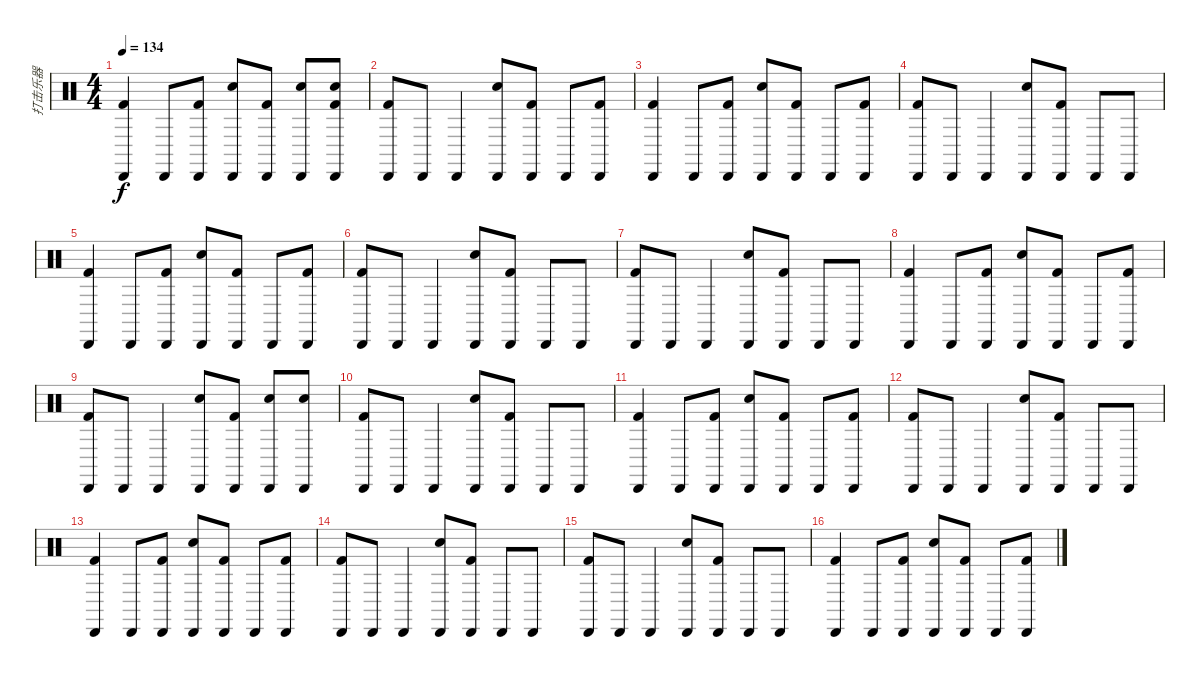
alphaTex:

\track ("打击乐器" "打击乐器") {instrument percussion}
\staff {score}
\articulation defaults
\ts (4 4)
\tempo 134
\clef neutral
\ks c
("Cabasa (hit)" "Kick (hit) 2").4{dy f} "Cabasa (hit)".8 ("Cabasa (hit)" "Kick (hit) 2").8 ("Snare (hit) 2" "Cabasa (hit)").8 ("Cabasa (hit)" "Kick (hit) 2").8 ("Snare (hit) 2" "Cabasa (hit)").8 ("Snare (hit) 2" "Cabasa (hit)" "Kick (hit) 2").8 |
("Cabasa (hit)" "Kick (hit) 2").8 "Cabasa (hit)".8 "Cabasa (hit)".4 ("Snare (hit) 2" "Cabasa (hit)").8 ("Cabasa (hit)" "Kick (hit) 2").8 "Cabasa (hit)".8 ("Cabasa (hit)" "Kick (hit) 2").8 |
("Cabasa (hit)" "Kick (hit) 2").4 "Cabasa (hit)".8 ("Cabasa (hit)" "Kick (hit) 2").8 ("Snare (hit) 2" "Cabasa (hit)").8 ("Cabasa (hit)" "Kick (hit) 2").8 "Cabasa (hit)".8 ("Cabasa (hit)" "Kick (hit) 2").8 |
("Cabasa (hit)" "Kick (hit) 2").8 "Cabasa (hit)".8 "Cabasa (hit)".4 ("Snare (hit) 2" "Cabasa (hit)").8 ("Cabasa (hit)" "Kick (hit) 2").8 "Cabasa (hit)".8 "Cabasa (hit)".8 |
("Cabasa (hit)" "Kick (hit) 2").4 "Cabasa (hit)".8 ("Cabasa (hit)" "Kick (hit) 2").8 ("Snare (hit) 2" "Cabasa (hit)").8 ("Cabasa (hit)" "Kick (hit) 2").8 "Cabasa (hit)".8 ("Cabasa (hit)" "Kick (hit) 2").8 |
("Cabasa (hit)" "Kick (hit) 2").8 "Cabasa (hit)".8 "Cabasa (hit)".4 ("Snare (hit) 2" "Cabasa (hit)").8 ("Cabasa (hit)" "Kick (hit) 2").8 "Cabasa (hit)".8 "Cabasa (hit)".8 |
("Cabasa (hit)" "Kick (hit) 2").8 "Cabasa (hit)".8 "Cabasa (hit)".4 ("Snare (hit) 2" "Cabasa (hit)").8 ("Cabasa (hit)" "Kick (hit) 2").8 "Cabasa (hit)".8 "Cabasa (hit)".8 |
("Cabasa (hit)" "Kick (hit) 2").4 "Cabasa (hit)".8 ("Cabasa (hit)" "Kick (hit) 2").8 ("Snare (hit) 2" "Cabasa (hit)").8 ("Cabasa (hit)" "Kick (hit) 2").8 "Cabasa (hit)".8 ("Cabasa (hit)" "Kick (hit) 2").8 |
("Cabasa (hit)" "Kick (hit) 2").8 "Cabasa (hit)".8 "Cabasa (hit)".4 ("Snare (hit) 2" "Cabasa (hit)").8 ("Cabasa (hit)" "Kick (hit) 2").8 ("Snare (hit) 2" "Cabasa (hit)").8 ("Snare (hit) 2" "Cabasa (hit)").8 |
("Cabasa (hit)" "Kick (hit) 2").8 "Cabasa (hit)".8 "Cabasa (hit)".4 ("Snare (hit) 2" "Cabasa (hit)").8 ("Cabasa (hit)" "Kick (hit) 2").8 "Cabasa (hit)".8 "Cabasa (hit)".8 |
("Cabasa (hit)" "Kick (hit) 2").4 "Cabasa (hit)".8 ("Cabasa (hit)" "Kick (hit) 2").8 ("Snare (hit) 2" "Cabasa (hit)").8 ("Cabasa (hit)" "Kick (hit) 2").8 "Cabasa (hit)".8 ("Cabasa (hit)" "Kick (hit) 2").8 |
("Cabasa (hit)" "Kick (hit) 2").8 "Cabasa (hit)".8 "Cabasa (hit)".4 ("Snare (hit) 2" "Cabasa (hit)").8 ("Cabasa (hit)" "Kick (hit) 2").8 "Cabasa (hit)".8 "Cabasa (hit)".8 |
("Cabasa (hit)" "Kick (hit) 2").4 "Cabasa (hit)".8 ("Cabasa (hit)" "Kick (hit) 2").8 ("Snare (hit) 2" "Cabasa (hit)").8 ("Cabasa (hit)" "Kick (hit) 2").8 "Cabasa (hit)".8 ("Cabasa (hit)" "Kick (hit) 2").8 |
("Cabasa (hit)" "Kick (hit) 2").8 "Cabasa (hit)".8 "Cabasa (hit)".4 ("Snare (hit) 2" "Cabasa (hit)").8 ("Cabasa (hit)" "Kick (hit) 2").8 "Cabasa (hit)".8 "Cabasa (hit)".8 |
("Cabasa (hit)" "Kick (hit) 2").8 "Cabasa (hit)".8 "Cabasa (hit)".4 ("Snare (hit) 2" "Cabasa (hit)").8 ("Cabasa (hit)" "Kick (hit) 2").8 "Cabasa (hit)".8 "Cabasa (hit)".8 |
("Cabasa (hit)" "Kick (hit) 2").4 "Cabasa (hit)".8 ("Cabasa (hit)" "Kick (hit) 2").8 ("Snare (hit) 2" "Cabasa (hit)").8 ("Cabasa (hit)" "Kick (hit) 2").8 "Cabasa (hit)".8 ("Cabasa (hit)" "Kick (hit) 2").8
